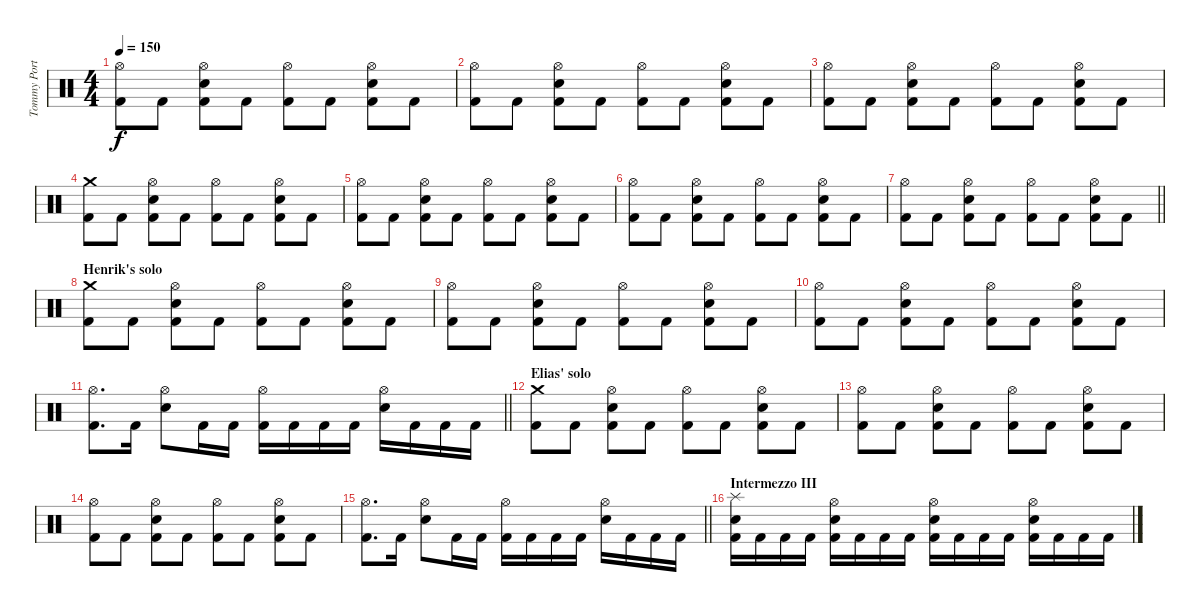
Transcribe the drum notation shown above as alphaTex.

\track ("Tommy Portimo" "Tommy Port") {instrument percussion}
\staff {score}
\articulation defaults
\ts (4 4)
\tempo 150
\clef neutral
\ks c
("Hi-Hat (open)" "Kick (hit) 2").8{dy f} "Kick (hit) 2".8 ("Hi-Hat (open)" "Electric Snare (hit)" "Kick (hit) 2").8 "Kick (hit) 2".8 ("Hi-Hat (open)" "Kick (hit) 2").8 "Kick (hit) 2".8 ("Hi-Hat (open)" "Electric Snare (hit)" "Kick (hit) 2").8 "Kick (hit) 2".8 |
("Hi-Hat (open)" "Kick (hit) 2").8 "Kick (hit) 2".8 ("Hi-Hat (open)" "Electric Snare (hit)" "Kick (hit) 2").8 "Kick (hit) 2".8 ("Hi-Hat (open)" "Kick (hit) 2").8 "Kick (hit) 2".8 ("Hi-Hat (open)" "Electric Snare (hit)" "Kick (hit) 2").8 "Kick (hit) 2".8 |
("Hi-Hat (open)" "Kick (hit) 2").8 "Kick (hit) 2".8 ("Hi-Hat (open)" "Electric Snare (hit)" "Kick (hit) 2").8 "Kick (hit) 2".8 ("Hi-Hat (open)" "Kick (hit) 2").8 "Kick (hit) 2".8 ("Hi-Hat (open)" "Electric Snare (hit)" "Kick (hit) 2").8 "Kick (hit) 2".8 |
("Crash medium (hit)" "Kick (hit) 2").8 "Kick (hit) 2".8 ("Hi-Hat (open)" "Electric Snare (hit)" "Kick (hit) 2").8 "Kick (hit) 2".8 ("Hi-Hat (open)" "Kick (hit) 2").8 "Kick (hit) 2".8 ("Hi-Hat (open)" "Electric Snare (hit)" "Kick (hit) 2").8 "Kick (hit) 2".8 |
("Hi-Hat (open)" "Kick (hit) 2").8 "Kick (hit) 2".8 ("Hi-Hat (open)" "Electric Snare (hit)" "Kick (hit) 2").8 "Kick (hit) 2".8 ("Hi-Hat (open)" "Kick (hit) 2").8 "Kick (hit) 2".8 ("Hi-Hat (open)" "Electric Snare (hit)" "Kick (hit) 2").8 "Kick (hit) 2".8 |
("Hi-Hat (open)" "Kick (hit) 2").8 "Kick (hit) 2".8 ("Hi-Hat (open)" "Electric Snare (hit)" "Kick (hit) 2").8 "Kick (hit) 2".8 ("Hi-Hat (open)" "Kick (hit) 2").8 "Kick (hit) 2".8 ("Hi-Hat (open)" "Electric Snare (hit)" "Kick (hit) 2").8 "Kick (hit) 2".8 |
\barLineRight lightlight
("Hi-Hat (open)" "Kick (hit) 2").8 "Kick (hit) 2".8 ("Hi-Hat (open)" "Electric Snare (hit)" "Kick (hit) 2").8 "Kick (hit) 2".8 ("Hi-Hat (open)" "Kick (hit) 2").8 "Kick (hit) 2".8 ("Hi-Hat (open)" "Electric Snare (hit)" "Kick (hit) 2").8 "Kick (hit) 2".8 |
\section ("" "Henrik's solo")
("Crash medium (hit)" "Kick (hit) 2").8 "Kick (hit) 2".8 ("Hi-Hat (open)" "Electric Snare (hit)" "Kick (hit) 2").8 "Kick (hit) 2".8 ("Hi-Hat (open)" "Kick (hit) 2").8 "Kick (hit) 2".8 ("Hi-Hat (open)" "Electric Snare (hit)" "Kick (hit) 2").8 "Kick (hit) 2".8 |
("Hi-Hat (open)" "Kick (hit) 2").8 "Kick (hit) 2".8 ("Hi-Hat (open)" "Electric Snare (hit)" "Kick (hit) 2").8 "Kick (hit) 2".8 ("Hi-Hat (open)" "Kick (hit) 2").8 "Kick (hit) 2".8 ("Hi-Hat (open)" "Electric Snare (hit)" "Kick (hit) 2").8 "Kick (hit) 2".8 |
("Hi-Hat (open)" "Kick (hit) 2").8 "Kick (hit) 2".8 ("Hi-Hat (open)" "Electric Snare (hit)" "Kick (hit) 2").8 "Kick (hit) 2".8 ("Hi-Hat (open)" "Kick (hit) 2").8 "Kick (hit) 2".8 ("Hi-Hat (open)" "Electric Snare (hit)" "Kick (hit) 2").8 "Kick (hit) 2".8 |
\barLineRight lightlight
("Hi-Hat (open)" "Kick (hit) 2").8{d} "Kick (hit) 2".16 ("Hi-Hat (open)" "Electric Snare (hit)").8 "Kick (hit) 2".16 "Kick (hit) 2".16 ("Hi-Hat (open)" "Kick (hit) 2").16 "Kick (hit) 2".16 "Kick (hit) 2".16 "Kick (hit) 2".16 ("Hi-Hat (open)" "Electric Snare (hit)").16 "Kick (hit) 2".16 "Kick (hit) 2".16 "Kick (hit) 2".16 |
\section ("" "Elias' solo")
("Crash medium (hit)" "Kick (hit) 2").8 "Kick (hit) 2".8 ("Hi-Hat (open)" "Electric Snare (hit)" "Kick (hit) 2").8 "Kick (hit) 2".8 ("Hi-Hat (open)" "Kick (hit) 2").8 "Kick (hit) 2".8 ("Hi-Hat (open)" "Electric Snare (hit)" "Kick (hit) 2").8 "Kick (hit) 2".8 |
("Hi-Hat (open)" "Kick (hit) 2").8 "Kick (hit) 2".8 ("Hi-Hat (open)" "Electric Snare (hit)" "Kick (hit) 2").8 "Kick (hit) 2".8 ("Hi-Hat (open)" "Kick (hit) 2").8 "Kick (hit) 2".8 ("Hi-Hat (open)" "Electric Snare (hit)" "Kick (hit) 2").8 "Kick (hit) 2".8 |
("Hi-Hat (open)" "Kick (hit) 2").8 "Kick (hit) 2".8 ("Hi-Hat (open)" "Electric Snare (hit)" "Kick (hit) 2").8 "Kick (hit) 2".8 ("Hi-Hat (open)" "Kick (hit) 2").8 "Kick (hit) 2".8 ("Hi-Hat (open)" "Electric Snare (hit)" "Kick (hit) 2").8 "Kick (hit) 2".8 |
\barLineRight lightlight
("Hi-Hat (open)" "Kick (hit) 2").8{d} "Kick (hit) 2".16 ("Hi-Hat (open)" "Electric Snare (hit)").8 "Kick (hit) 2".16 "Kick (hit) 2".16 ("Hi-Hat (open)" "Kick (hit) 2").16 "Kick (hit) 2".16 "Kick (hit) 2".16 "Kick (hit) 2".16 ("Hi-Hat (open)" "Electric Snare (hit)").16 "Kick (hit) 2".16 "Kick (hit) 2".16 "Kick (hit) 2".16 |
\section ("" "Intermezzo III")
("Splash (hit)" "Electric Snare (hit)" "Kick (hit) 2").16 "Kick (hit) 2".16 "Kick (hit) 2".16 "Kick (hit) 2".16 ("Hi-Hat (open)" "Electric Snare (hit)" "Kick (hit) 2").16 "Kick (hit) 2".16 "Kick (hit) 2".16 "Kick (hit) 2".16 ("Hi-Hat (open)" "Electric Snare (hit)" "Kick (hit) 2").16 "Kick (hit) 2".16 "Kick (hit) 2".16 "Kick (hit) 2".16 ("Hi-Hat (open)" "Electric Snare (hit)" "Kick (hit) 2").16 "Kick (hit) 2".16 "Kick (hit) 2".16 "Kick (hit) 2".16
